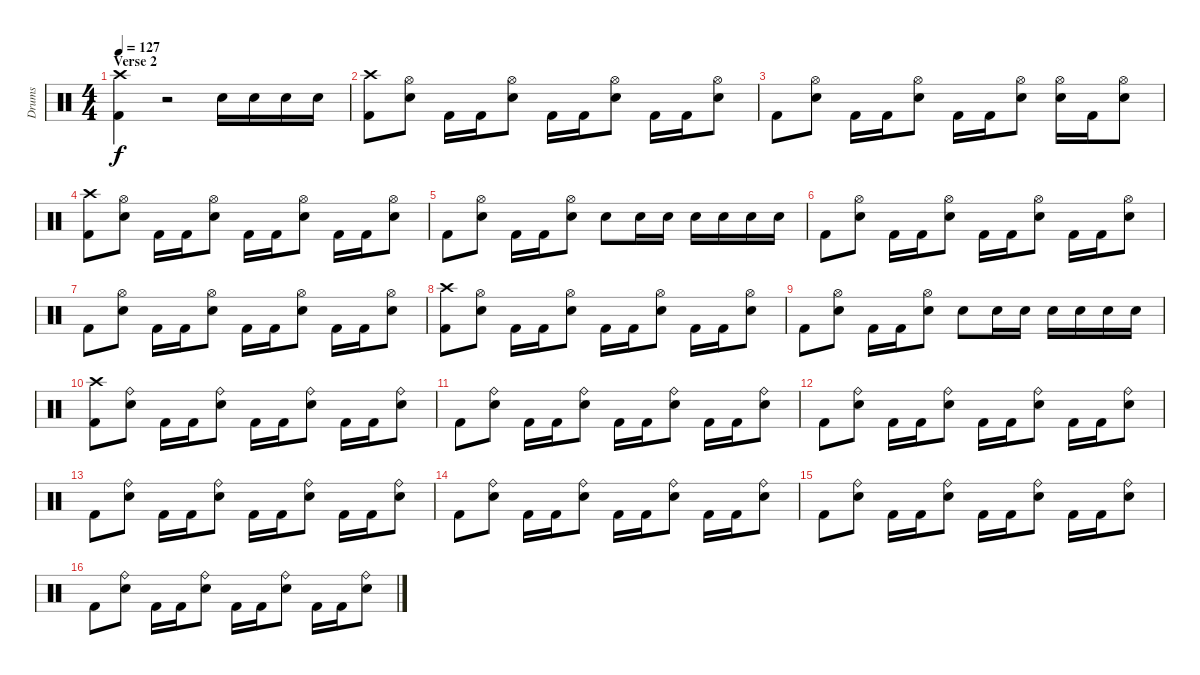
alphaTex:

\track ("Drums" "Drums") {instrument percussion}
\staff {score}
\articulation defaults
\ts (4 4)
\section ("" "Verse 2")
\tempo 127
\clef neutral
\ks c
("Crash high (hit)" "Kick (hit) 2").4{dy f} r.2 "Snare (hit) 2".16 "Snare (hit) 2".16 "Snare (hit) 2".16 "Snare (hit) 2".16 |
("Crash high (hit)" "Kick (hit) 2").8 ("Hi-Hat (open)" "Snare (hit) 2").8 "Kick (hit) 2".16 "Kick (hit) 2".16 ("Hi-Hat (open)" "Snare (hit) 2").8 "Kick (hit) 2".16 "Kick (hit) 2".16 ("Hi-Hat (open)" "Snare (hit) 2").8 "Kick (hit) 2".16 "Kick (hit) 2".16 ("Hi-Hat (open)" "Snare (hit) 2").8 |
"Kick (hit) 2".8 ("Hi-Hat (open)" "Snare (hit) 2").8 "Kick (hit) 2".16 "Kick (hit) 2".16 ("Hi-Hat (open)" "Snare (hit) 2").8 "Kick (hit) 2".16 "Kick (hit) 2".16 ("Hi-Hat (open)" "Snare (hit) 2").8 ("Hi-Hat (open)" "Snare (hit) 2").16 "Kick (hit) 2".16 ("Hi-Hat (open)" "Snare (hit) 2").8 |
("Crash high (hit)" "Kick (hit) 2").8 ("Hi-Hat (open)" "Snare (hit) 2").8 "Kick (hit) 2".16 "Kick (hit) 2".16 ("Hi-Hat (open)" "Snare (hit) 2").8 "Kick (hit) 2".16 "Kick (hit) 2".16 ("Hi-Hat (open)" "Snare (hit) 2").8 "Kick (hit) 2".16 "Kick (hit) 2".16 ("Hi-Hat (open)" "Snare (hit) 2").8 |
"Kick (hit) 2".8 ("Hi-Hat (open)" "Snare (hit) 2").8 "Kick (hit) 2".16 "Kick (hit) 2".16 ("Hi-Hat (open)" "Snare (hit) 2").8 "Snare (hit) 2".8 "Snare (hit) 2".16 "Snare (hit) 2".16 "Snare (hit) 2".16 "Snare (hit) 2".16 "Snare (hit) 2".16 "Snare (hit) 2".16 |
"Kick (hit) 2".8 ("Hi-Hat (open)" "Snare (hit) 2").8 "Kick (hit) 2".16 "Kick (hit) 2".16 ("Hi-Hat (open)" "Snare (hit) 2").8 "Kick (hit) 2".16 "Kick (hit) 2".16 ("Hi-Hat (open)" "Snare (hit) 2").8 "Kick (hit) 2".16 "Kick (hit) 2".16 ("Hi-Hat (open)" "Snare (hit) 2").8 |
"Kick (hit) 2".8 ("Hi-Hat (open)" "Snare (hit) 2").8 "Kick (hit) 2".16 "Kick (hit) 2".16 ("Hi-Hat (open)" "Snare (hit) 2").8 "Kick (hit) 2".16 "Kick (hit) 2".16 ("Hi-Hat (open)" "Snare (hit) 2").8 "Kick (hit) 2".16 "Kick (hit) 2".16 ("Hi-Hat (open)" "Snare (hit) 2").8 |
("Crash high (hit)" "Kick (hit) 2").8 ("Hi-Hat (open)" "Snare (hit) 2").8 "Kick (hit) 2".16 "Kick (hit) 2".16 ("Hi-Hat (open)" "Snare (hit) 2").8 "Kick (hit) 2".16 "Kick (hit) 2".16 ("Hi-Hat (open)" "Snare (hit) 2").8 "Kick (hit) 2".16 "Kick (hit) 2".16 ("Hi-Hat (open)" "Snare (hit) 2").8 |
"Kick (hit) 2".8 ("Hi-Hat (open)" "Snare (hit) 2").8 "Kick (hit) 2".16 "Kick (hit) 2".16 ("Hi-Hat (open)" "Snare (hit) 2").8 "Snare (hit) 2".8 "Snare (hit) 2".16 "Snare (hit) 2".16 "Snare (hit) 2".16 "Snare (hit) 2".16 "Snare (hit) 2".16 "Snare (hit) 2".16 |
("Crash high (hit)" "Kick (hit) 2").8 ("Ride (bell)" "Snare (hit) 2").8 "Kick (hit) 2".16 "Kick (hit) 2".16 ("Ride (bell)" "Snare (hit) 2").8 "Kick (hit) 2".16 "Kick (hit) 2".16 ("Ride (bell)" "Snare (hit) 2").8 "Kick (hit) 2".16 "Kick (hit) 2".16 ("Ride (bell)" "Snare (hit) 2").8 |
"Kick (hit) 2".8 ("Ride (bell)" "Snare (hit) 2").8 "Kick (hit) 2".16 "Kick (hit) 2".16 ("Ride (bell)" "Snare (hit) 2").8 "Kick (hit) 2".16 "Kick (hit) 2".16 ("Ride (bell)" "Snare (hit) 2").8 "Kick (hit) 2".16 "Kick (hit) 2".16 ("Ride (bell)" "Snare (hit) 2").8 |
"Kick (hit) 2".8 ("Ride (bell)" "Snare (hit) 2").8 "Kick (hit) 2".16 "Kick (hit) 2".16 ("Ride (bell)" "Snare (hit) 2").8 "Kick (hit) 2".16 "Kick (hit) 2".16 ("Ride (bell)" "Snare (hit) 2").8 "Kick (hit) 2".16 "Kick (hit) 2".16 ("Ride (bell)" "Snare (hit) 2").8 |
"Kick (hit) 2".8 ("Ride (bell)" "Snare (hit) 2").8 "Kick (hit) 2".16 "Kick (hit) 2".16 ("Ride (bell)" "Snare (hit) 2").8 "Kick (hit) 2".16 "Kick (hit) 2".16 ("Ride (bell)" "Snare (hit) 2").8 "Kick (hit) 2".16 "Kick (hit) 2".16 ("Ride (bell)" "Snare (hit) 2").8 |
"Kick (hit) 2".8 ("Ride (bell)" "Snare (hit) 2").8 "Kick (hit) 2".16 "Kick (hit) 2".16 ("Ride (bell)" "Snare (hit) 2").8 "Kick (hit) 2".16 "Kick (hit) 2".16 ("Ride (bell)" "Snare (hit) 2").8 "Kick (hit) 2".16 "Kick (hit) 2".16 ("Ride (bell)" "Snare (hit) 2").8 |
"Kick (hit) 2".8 ("Ride (bell)" "Snare (hit) 2").8 "Kick (hit) 2".16 "Kick (hit) 2".16 ("Ride (bell)" "Snare (hit) 2").8 "Kick (hit) 2".16 "Kick (hit) 2".16 ("Ride (bell)" "Snare (hit) 2").8 "Kick (hit) 2".16 "Kick (hit) 2".16 ("Ride (bell)" "Snare (hit) 2").8 |
"Kick (hit) 2".8 ("Ride (bell)" "Snare (hit) 2").8 "Kick (hit) 2".16 "Kick (hit) 2".16 ("Ride (bell)" "Snare (hit) 2").8 "Kick (hit) 2".16 "Kick (hit) 2".16 ("Ride (bell)" "Snare (hit) 2").8 "Kick (hit) 2".16 "Kick (hit) 2".16 ("Ride (bell)" "Snare (hit) 2").8
